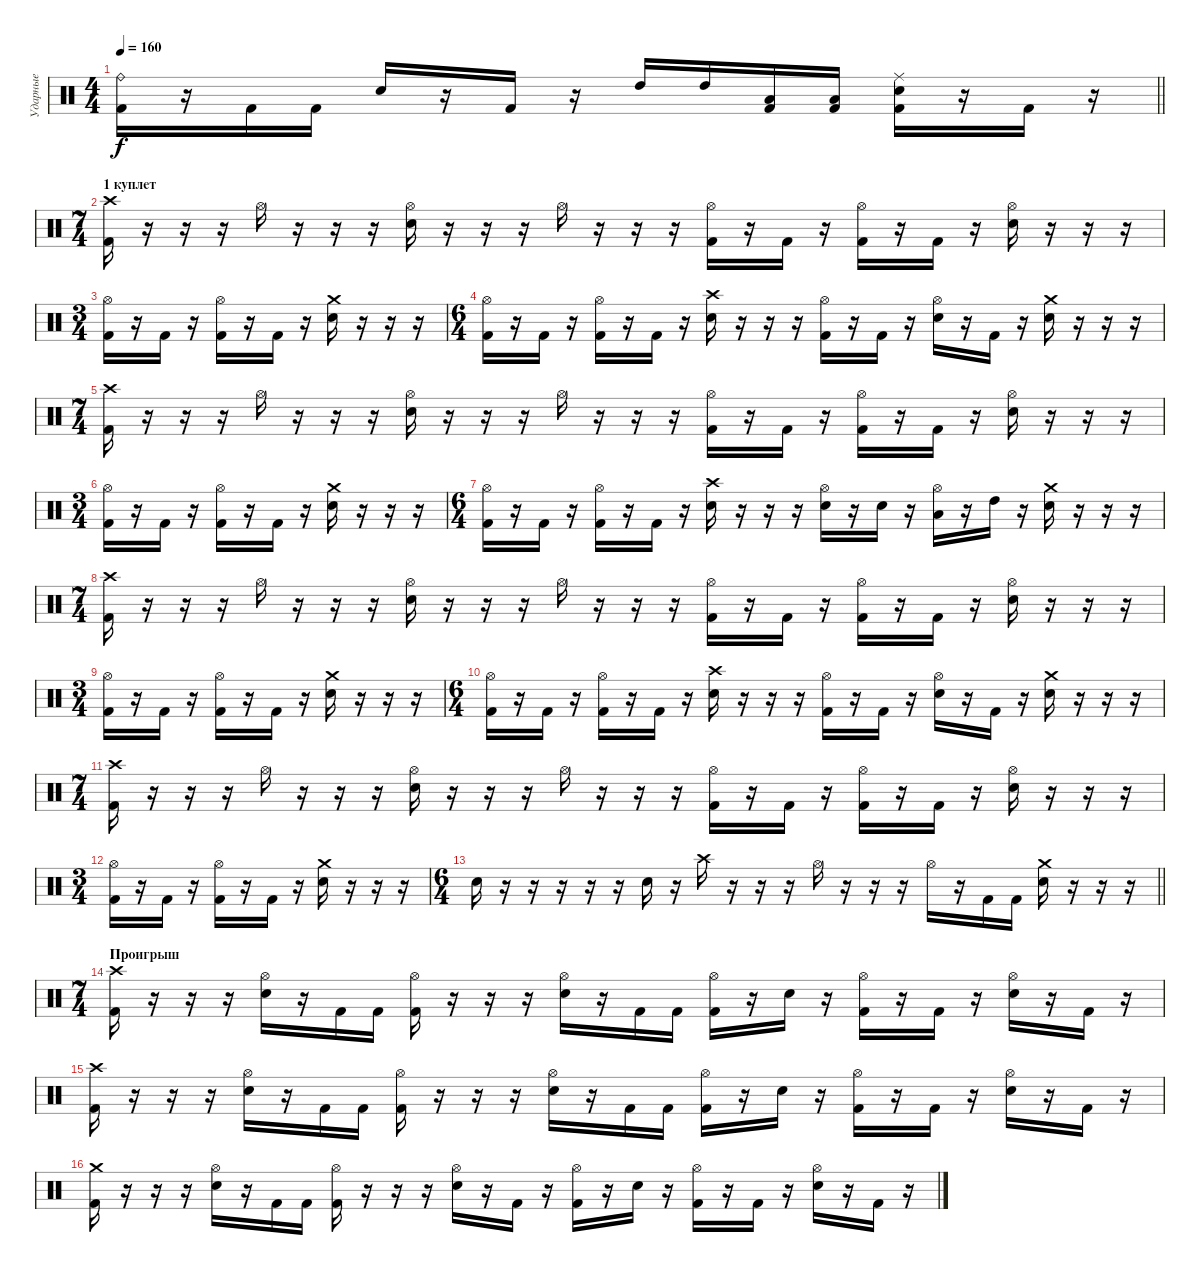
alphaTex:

\track ("Ударные" "Ударные") {instrument percussion}
\staff {score}
\articulation defaults
\ts (4 4)
\tempo 160
\clef neutral
\barLineRight lightlight
\ks c
("Ride (bell)" "Kick (hit) 2").16{dy f} r.16 "Kick (hit) 2".16 "Kick (hit) 2".16 "Electric Snare (hit)".16 r.16 "Kick (hit) 2".16 r.16 "High Tom (hit)".16 "High Tom (hit)".16 ("Low Tom (hit)" "Kick (hit) 2").16 ("Low Tom (hit)" "Kick (hit) 2").16 ("Ride (middle)" "Electric Snare (hit)" "Kick (hit) 2").16 r.16 "Kick (hit) 2".16 r.16 |
\ts (7 4)
\section ("" "1 куплет")
("Crash high (hit)" "Kick (hit) 2").16 r.16 r.16 r.16 "Hi-Hat (open)".16 r.16 r.16 r.16 ("Hi-Hat (open)" "Electric Snare (hit)").16 r.16 r.16 r.16 "Hi-Hat (open)".16 r.16 r.16 r.16 ("Hi-Hat (open)" "Kick (hit) 2").16 r.16 "Kick (hit) 2".16 r.16 ("Hi-Hat (open)" "Kick (hit) 2").16 r.16 "Kick (hit) 2".16 r.16 ("Hi-Hat (open)" "Electric Snare (hit)").16 r.16 r.16 r.16 |
\ts (3 4)
("Hi-Hat (open)" "Kick (hit) 2").16 r.16 "Kick (hit) 2".16 r.16 ("Hi-Hat (open)" "Kick (hit) 2").16 r.16 "Kick (hit) 2".16 r.16 ("Crash medium (hit)" "Electric Snare (hit)").16 r.16 r.16 r.16 |
\ts (6 4)
("Hi-Hat (open)" "Kick (hit) 2").16 r.16 "Kick (hit) 2".16 r.16 ("Hi-Hat (open)" "Kick (hit) 2").16 r.16 "Kick (hit) 2".16 r.16 ("Crash high (hit)" "Electric Snare (hit)").16 r.16 r.16 r.16 ("Hi-Hat (open)" "Kick (hit) 2").16 r.16 "Kick (hit) 2".16 r.16 ("Hi-Hat (open)" "Electric Snare (hit)").16 r.16 "Kick (hit) 2".16 r.16 ("Crash medium (hit)" "Electric Snare (hit)").16 r.16 r.16 r.16 |
\ts (7 4)
("Crash high (hit)" "Kick (hit) 2").16 r.16 r.16 r.16 "Hi-Hat (open)".16 r.16 r.16 r.16 ("Hi-Hat (open)" "Electric Snare (hit)").16 r.16 r.16 r.16 "Hi-Hat (open)".16 r.16 r.16 r.16 ("Hi-Hat (open)" "Kick (hit) 2").16 r.16 "Kick (hit) 2".16 r.16 ("Hi-Hat (open)" "Kick (hit) 2").16 r.16 "Kick (hit) 2".16 r.16 ("Hi-Hat (open)" "Electric Snare (hit)").16 r.16 r.16 r.16 |
\ts (3 4)
("Hi-Hat (open)" "Kick (hit) 2").16 r.16 "Kick (hit) 2".16 r.16 ("Hi-Hat (open)" "Kick (hit) 2").16 r.16 "Kick (hit) 2".16 r.16 ("Crash medium (hit)" "Electric Snare (hit)").16 r.16 r.16 r.16 |
\ts (6 4)
("Hi-Hat (open)" "Kick (hit) 2").16 r.16 "Kick (hit) 2".16 r.16 ("Hi-Hat (open)" "Kick (hit) 2").16 r.16 "Kick (hit) 2".16 r.16 ("Crash high (hit)" "Electric Snare (hit)").16 r.16 r.16 r.16 ("Hi-Hat (open)" "Electric Snare (hit)").16 r.16 "Electric Snare (hit)".16 r.16 ("Hi-Hat (open)" "Low Tom (hit)").16 r.16 "High Tom (hit)".16 r.16 ("Crash medium (hit)" "Electric Snare (hit)").16 r.16 r.16 r.16 |
\ts (7 4)
("Crash high (hit)" "Kick (hit) 2").16 r.16 r.16 r.16 "Hi-Hat (open)".16 r.16 r.16 r.16 ("Hi-Hat (open)" "Electric Snare (hit)").16 r.16 r.16 r.16 "Hi-Hat (open)".16 r.16 r.16 r.16 ("Hi-Hat (open)" "Kick (hit) 2").16 r.16 "Kick (hit) 2".16 r.16 ("Hi-Hat (open)" "Kick (hit) 2").16 r.16 "Kick (hit) 2".16 r.16 ("Hi-Hat (open)" "Electric Snare (hit)").16 r.16 r.16 r.16 |
\ts (3 4)
("Hi-Hat (open)" "Kick (hit) 2").16 r.16 "Kick (hit) 2".16 r.16 ("Hi-Hat (open)" "Kick (hit) 2").16 r.16 "Kick (hit) 2".16 r.16 ("Crash medium (hit)" "Electric Snare (hit)").16 r.16 r.16 r.16 |
\ts (6 4)
("Hi-Hat (open)" "Kick (hit) 2").16 r.16 "Kick (hit) 2".16 r.16 ("Hi-Hat (open)" "Kick (hit) 2").16 r.16 "Kick (hit) 2".16 r.16 ("Crash high (hit)" "Electric Snare (hit)").16 r.16 r.16 r.16 ("Hi-Hat (open)" "Kick (hit) 2").16 r.16 "Kick (hit) 2".16 r.16 ("Hi-Hat (open)" "Electric Snare (hit)").16 r.16 "Kick (hit) 2".16 r.16 ("Crash medium (hit)" "Electric Snare (hit)").16 r.16 r.16 r.16 |
\ts (7 4)
("Crash high (hit)" "Kick (hit) 2").16 r.16 r.16 r.16 "Hi-Hat (open)".16 r.16 r.16 r.16 ("Hi-Hat (open)" "Electric Snare (hit)").16 r.16 r.16 r.16 "Hi-Hat (open)".16 r.16 r.16 r.16 ("Hi-Hat (open)" "Kick (hit) 2").16 r.16 "Kick (hit) 2".16 r.16 ("Hi-Hat (open)" "Kick (hit) 2").16 r.16 "Kick (hit) 2".16 r.16 ("Hi-Hat (open)" "Electric Snare (hit)").16 r.16 r.16 r.16 |
\ts (3 4)
("Hi-Hat (open)" "Kick (hit) 2").16 r.16 "Kick (hit) 2".16 r.16 ("Hi-Hat (open)" "Kick (hit) 2").16 r.16 "Kick (hit) 2".16 r.16 ("Crash medium (hit)" "Electric Snare (hit)").16 r.16 r.16 r.16 |
\ts (6 4)
\barLineRight lightlight "Electric Snare (hit)".16
r.16 r.16 r.16 r.16 r.16 "Electric Snare (hit)".16 r.16 "Crash high (hit)".16 r.16 r.16 r.16 "Hi-Hat (open)".16 r.16 r.16 r.16 "Hi-Hat (open)".16 r.16 "Kick (hit) 2".16 "Kick (hit) 2".16 ("Crash medium (hit)" "Electric Snare (hit)").16 r.16 r.16 r.16 |
\ts (7 4)
\section ("" "Проигрыш")
("Crash high (hit)" "Kick (hit) 2").16 r.16 r.16 r.16 ("Hi-Hat (open)" "Electric Snare (hit)").16 r.16 "Kick (hit) 2".16 "Kick (hit) 2".16 ("Hi-Hat (open)" "Kick (hit) 2").16 r.16 r.16 r.16 ("Hi-Hat (open)" "Electric Snare (hit)").16 r.16 "Kick (hit) 2".16 "Kick (hit) 2".16 ("Hi-Hat (open)" "Kick (hit) 2").16 r.16 "Electric Snare (hit)".16 r.16 ("Hi-Hat (open)" "Kick (hit) 2").16 r.16 "Kick (hit) 2".16 r.16 ("Hi-Hat (open)" "Electric Snare (hit)").16 r.16 "Kick (hit) 2".16 r.16 |
("Crash high (hit)" "Kick (hit) 2").16 r.16 r.16 r.16 ("Hi-Hat (open)" "Electric Snare (hit)").16 r.16 "Kick (hit) 2".16 "Kick (hit) 2".16 ("Hi-Hat (open)" "Kick (hit) 2").16 r.16 r.16 r.16 ("Hi-Hat (open)" "Electric Snare (hit)").16 r.16 "Kick (hit) 2".16 "Kick (hit) 2".16 ("Hi-Hat (open)" "Kick (hit) 2").16 r.16 "Electric Snare (hit)".16 r.16 ("Hi-Hat (open)" "Kick (hit) 2").16 r.16 "Kick (hit) 2".16 r.16 ("Hi-Hat (open)" "Electric Snare (hit)").16 r.16 "Kick (hit) 2".16 r.16 |
("Crash medium (hit)" "Kick (hit) 2").16 r.16 r.16 r.16 ("Hi-Hat (open)" "Electric Snare (hit)").16 r.16 "Kick (hit) 2".16 "Kick (hit) 2".16 ("Hi-Hat (open)" "Kick (hit) 2").16 r.16 r.16 r.16 ("Hi-Hat (open)" "Electric Snare (hit)").16 r.16 "Kick (hit) 2".16 r.16 ("Hi-Hat (open)" "Kick (hit) 2").16 r.16 "Electric Snare (hit)".16 r.16 ("Hi-Hat (open)" "Kick (hit) 2").16 r.16 "Kick (hit) 2".16 r.16 ("Hi-Hat (open)" "Electric Snare (hit)").16 r.16 "Kick (hit) 2".16 r.16
